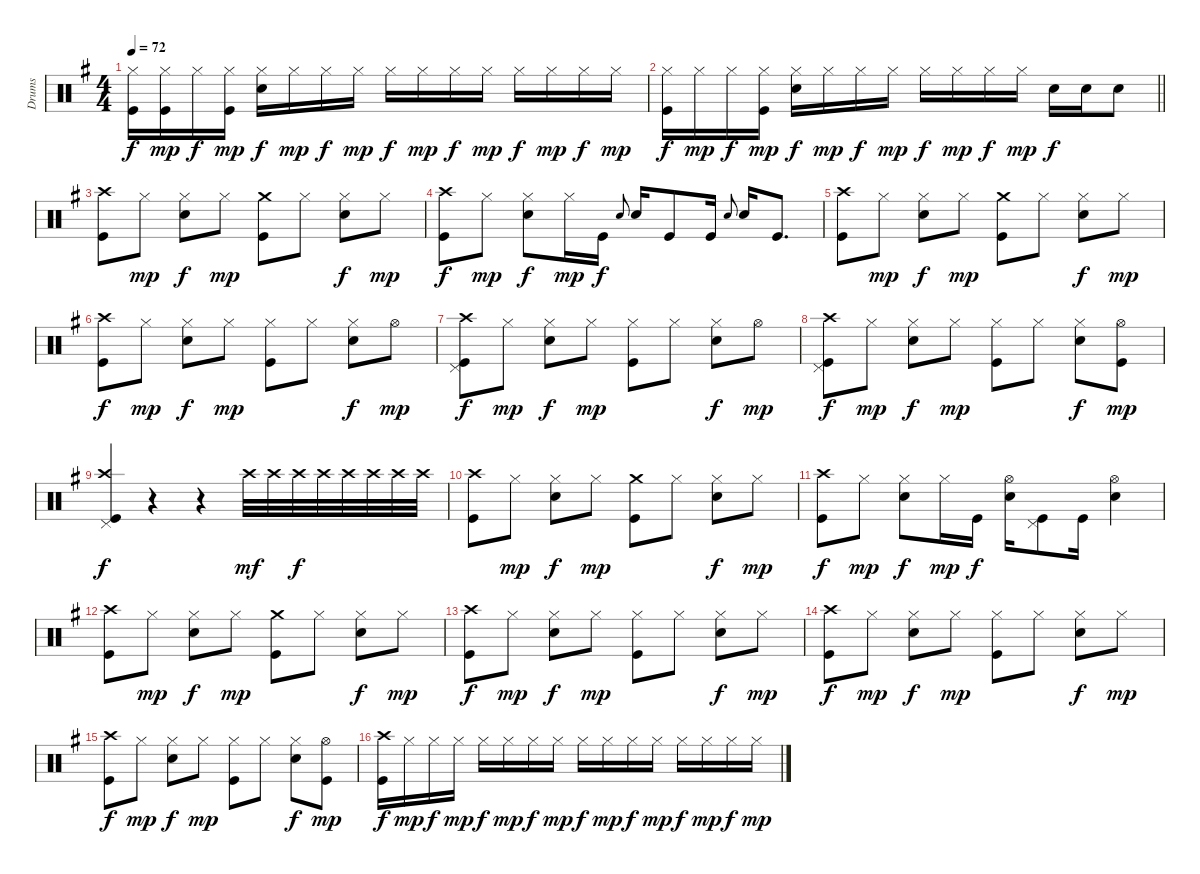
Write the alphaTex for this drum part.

\track ("Drums" "Drums") {instrument percussion}
\staff {score}
\articulation defaults
\ts (4 4)
\tempo 72
\clef neutral
\ks eminor
("Hi-Hat (closed)" "Kick (hit)").16{dy f} ("Hi-Hat (closed)" "Kick (hit)").16{dy mp} "Hi-Hat (closed)".16{dy f} ("Hi-Hat (closed)" "Kick (hit)").16{dy mp} ("Hi-Hat (closed)" "Snare (hit) 2").16{dy f} "Hi-Hat (closed)".16{dy mp} "Hi-Hat (closed)".16{dy f} "Hi-Hat (closed)".16{dy mp} "Hi-Hat (closed)".16{dy f} "Hi-Hat (closed)".16{dy mp} "Hi-Hat (closed)".16{dy f} "Hi-Hat (closed)".16{dy mp} "Hi-Hat (closed)".16{dy f} "Hi-Hat (closed)".16{dy mp} "Hi-Hat (closed)".16{dy f} "Hi-Hat (closed)".16{dy mp} |
\barLineRight lightlight
("Hi-Hat (closed)" "Kick (hit)").16{dy f} "Hi-Hat (closed)".16{dy mp} "Hi-Hat (closed)".16{dy f} ("Hi-Hat (closed)" "Kick (hit)").16{dy mp} ("Hi-Hat (closed)" "Snare (hit) 2").16{dy f} "Hi-Hat (closed)".16{dy mp} "Hi-Hat (closed)".16{dy f} "Hi-Hat (closed)".16{dy mp} "Hi-Hat (closed)".16{dy f} "Hi-Hat (closed)".16{dy mp} "Hi-Hat (closed)".16{dy f} "Hi-Hat (closed)".16{dy mp} "Snare (hit) 2".16{dy f} "Snare (hit) 2".16 "Snare (hit) 2".8 |
("Crash high (hit)" "Kick (hit)").8 "Hi-Hat (closed)".8{dy mp} ("Hi-Hat (closed)" "Snare (hit) 2").8{dy f} "Hi-Hat (closed)".8{dy mp} ("Crash medium (hit)" "Kick (hit)").8 "Hi-Hat (closed)".8 ("Hi-Hat (closed)" "Snare (hit) 2").8{dy f} "Hi-Hat (closed)".8{dy mp} |
("Crash high (hit)" "Kick (hit)").8{dy f} "Hi-Hat (closed)".8{dy mp} ("Hi-Hat (closed)" "Snare (hit) 2").8{dy f} "Hi-Hat (closed)".16{dy mp} "Kick (hit)".16{dy f} "Snare (hit) 2".8{gr onbeat} "Snare (hit) 2".16 "Kick (hit)".8 "Kick (hit)".16 "Snare (hit) 2".8{gr onbeat} "Snare (hit) 2".16 "Kick (hit)".8{d} |
("Crash high (hit)" "Kick (hit)").8 "Hi-Hat (closed)".8{dy mp} ("Hi-Hat (closed)" "Snare (hit) 2").8{dy f} "Hi-Hat (closed)".8{dy mp} ("Crash medium (hit)" "Kick (hit)").8 "Hi-Hat (closed)".8 ("Hi-Hat (closed)" "Snare (hit) 2").8{dy f} "Hi-Hat (closed)".8{dy mp} |
("Crash high (hit)" "Kick (hit)").8{dy f} "Hi-Hat (closed)".8{dy mp} ("Hi-Hat (closed)" "Snare (hit) 2").8{dy f} "Hi-Hat (closed)".8{dy mp} ("Hi-Hat (closed)" "Kick (hit)").8 "Hi-Hat (closed)".8 ("Hi-Hat (closed)" "Snare (hit) 2").8{dy f} "Hi-Hat (open)".8{dy mp} |
("Crash high (hit)" "Pedal Hi-Hat (hit)" "Kick (hit)").8{dy f} "Hi-Hat (closed)".8{dy mp} ("Hi-Hat (closed)" "Snare (hit) 2").8{dy f} "Hi-Hat (closed)".8{dy mp} ("Hi-Hat (closed)" "Kick (hit)").8 "Hi-Hat (closed)".8 ("Hi-Hat (closed)" "Snare (hit) 2").8{dy f} "Hi-Hat (open)".8{dy mp} |
("Crash high (hit)" "Pedal Hi-Hat (hit)" "Kick (hit)").8{dy f} "Hi-Hat (closed)".8{dy mp} ("Hi-Hat (closed)" "Snare (hit) 2").8{dy f} "Hi-Hat (closed)".8{dy mp} ("Hi-Hat (closed)" "Kick (hit)").8 "Hi-Hat (closed)".8 ("Hi-Hat (closed)" "Snare (hit) 2").8{dy f} ("Hi-Hat (open)" "Kick (hit)").8{dy mp} |
("Crash high (hit)" "Pedal Hi-Hat (hit)" "Kick (hit)").4{dy f} r.4 r.4 "Crash high (hit)".32{dy mf} "Crash high (hit)".32 "Crash high (hit)".32{dy f} "Crash high (hit)".32 "Crash high (hit)".32 "Crash high (hit)".32 "Crash high (hit)".32 "Crash high (hit)".32 |
("Crash high (hit)" "Kick (hit)").8 "Hi-Hat (closed)".8{dy mp} ("Hi-Hat (closed)" "Snare (hit) 2").8{dy f} "Hi-Hat (closed)".8{dy mp} ("Crash medium (hit)" "Kick (hit)").8 "Hi-Hat (closed)".8 ("Hi-Hat (closed)" "Snare (hit) 2").8{dy f} "Hi-Hat (closed)".8{dy mp} |
("Crash high (hit)" "Kick (hit)").8{dy f} "Hi-Hat (closed)".8{dy mp} ("Hi-Hat (closed)" "Snare (hit) 2").8{dy f} "Hi-Hat (closed)".16{dy mp} "Kick (hit)".16{dy f} ("Hi-Hat (open)" "Snare (hit) 2").16 ("Pedal Hi-Hat (hit)" "Kick (hit)").8 "Kick (hit)".16 ("Hi-Hat (open)" "Snare (hit) 2").4 |
("Crash high (hit)" "Kick (hit)").8 "Hi-Hat (closed)".8{dy mp} ("Hi-Hat (closed)" "Snare (hit) 2").8{dy f} "Hi-Hat (closed)".8{dy mp} ("Crash medium (hit)" "Kick (hit)").8 "Hi-Hat (closed)".8 ("Hi-Hat (closed)" "Snare (hit) 2").8{dy f} "Hi-Hat (closed)".8{dy mp} |
("Crash high (hit)" "Kick (hit)").8{dy f} "Hi-Hat (closed)".8{dy mp} ("Hi-Hat (closed)" "Snare (hit) 2").8{dy f} "Hi-Hat (closed)".8{dy mp} ("Hi-Hat (closed)" "Kick (hit)").8 "Hi-Hat (closed)".8 ("Hi-Hat (closed)" "Snare (hit) 2").8{dy f} "Hi-Hat (closed)".8{dy mp} |
("Crash high (hit)" "Kick (hit)").8{dy f} "Hi-Hat (closed)".8{dy mp} ("Hi-Hat (closed)" "Snare (hit) 2").8{dy f} "Hi-Hat (closed)".8{dy mp} ("Hi-Hat (closed)" "Kick (hit)").8 "Hi-Hat (closed)".8 ("Hi-Hat (closed)" "Snare (hit) 2").8{dy f} "Hi-Hat (closed)".8{dy mp} |
("Crash high (hit)" "Kick (hit)").8{dy f} "Hi-Hat (closed)".8{dy mp} ("Hi-Hat (closed)" "Snare (hit) 2").8{dy f} "Hi-Hat (closed)".8{dy mp} ("Hi-Hat (closed)" "Kick (hit)").8 "Hi-Hat (closed)".8 ("Hi-Hat (closed)" "Snare (hit) 2").8{dy f} ("Hi-Hat (open)" "Kick (hit)").8{dy mp} |
("Crash high (hit)" "Kick (hit)").16{dy f} "Hi-Hat (closed)".16{dy mp} "Hi-Hat (closed)".16{dy f} "Hi-Hat (closed)".16{dy mp} "Hi-Hat (closed)".16{dy f} "Hi-Hat (closed)".16{dy mp} "Hi-Hat (closed)".16{dy f} "Hi-Hat (closed)".16{dy mp} "Hi-Hat (closed)".16{dy f} "Hi-Hat (closed)".16{dy mp} "Hi-Hat (closed)".16{dy f} "Hi-Hat (closed)".16{dy mp} "Hi-Hat (closed)".16{dy f} "Hi-Hat (closed)".16{dy mp} "Hi-Hat (closed)".16{dy f} "Hi-Hat (closed)".16{dy mp}
